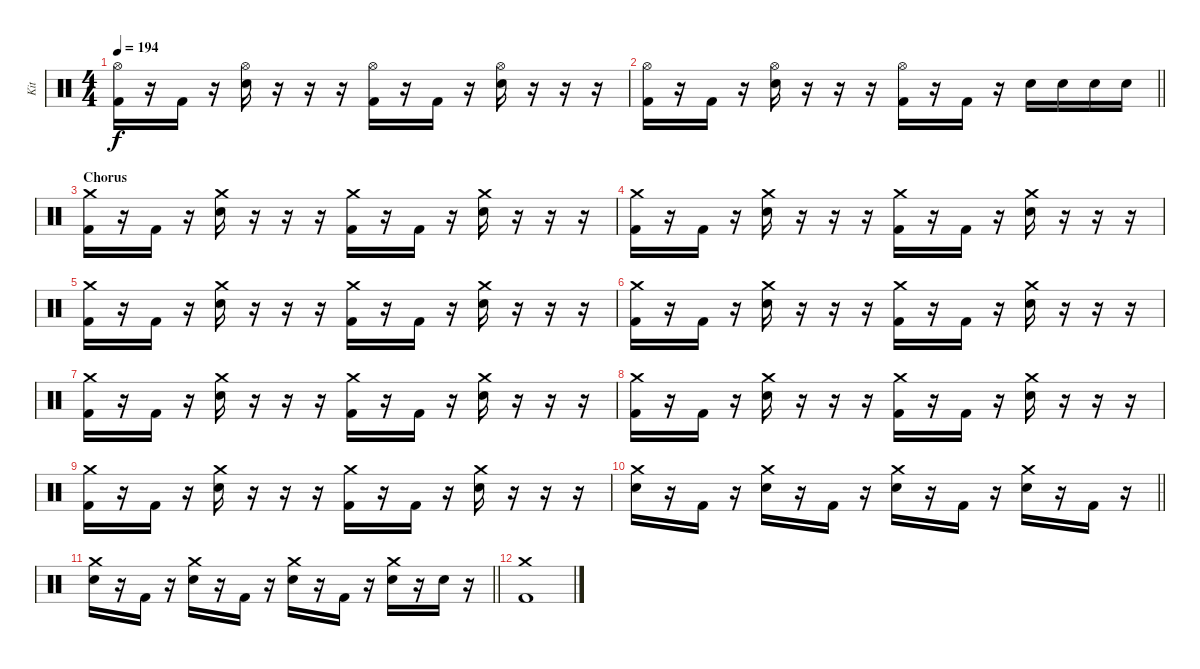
\track ("Kit" "Kit") {instrument percussion}
\staff {score}
\articulation defaults
\ts (4 4)
\tempo 194
\clef neutral
\ks c
("Hi-Hat (open)" "Kick (hit) 2").16{dy f} r.16 "Kick (hit) 2".16 r.16 ("Hi-Hat (open)" "Electric Snare (hit)").16 r.16 r.16 r.16 ("Hi-Hat (open)" "Kick (hit) 2").16 r.16 "Kick (hit) 2".16 r.16 ("Hi-Hat (open)" "Electric Snare (hit)").16 r.16 r.16 r.16 |
\barLineRight lightlight
("Hi-Hat (open)" "Kick (hit) 2").16 r.16 "Kick (hit) 2".16 r.16 ("Hi-Hat (open)" "Electric Snare (hit)").16 r.16 r.16 r.16 ("Hi-Hat (open)" "Kick (hit) 2").16 r.16 "Kick (hit) 2".16 r.16 "Electric Snare (hit)".16 "Electric Snare (hit)".16 "Electric Snare (hit)".16 "Electric Snare (hit)".16 |
\section ("" "Chorus")
("Crash medium (hit)" "Kick (hit) 2").16 r.16 "Kick (hit) 2".16 r.16 ("Crash medium (hit)" "Electric Snare (hit)").16 r.16 r.16 r.16 ("Crash medium (hit)" "Kick (hit) 2").16 r.16 "Kick (hit) 2".16 r.16 ("Crash medium (hit)" "Electric Snare (hit)").16 r.16 r.16 r.16 |
("Crash medium (hit)" "Kick (hit) 2").16 r.16 "Kick (hit) 2".16 r.16 ("Crash medium (hit)" "Electric Snare (hit)").16 r.16 r.16 r.16 ("Crash medium (hit)" "Kick (hit) 2").16 r.16 "Kick (hit) 2".16 r.16 ("Crash medium (hit)" "Electric Snare (hit)").16 r.16 r.16 r.16 |
("Crash medium (hit)" "Kick (hit) 2").16 r.16 "Kick (hit) 2".16 r.16 ("Crash medium (hit)" "Electric Snare (hit)").16 r.16 r.16 r.16 ("Crash medium (hit)" "Kick (hit) 2").16 r.16 "Kick (hit) 2".16 r.16 ("Crash medium (hit)" "Electric Snare (hit)").16 r.16 r.16 r.16 |
("Crash medium (hit)" "Kick (hit) 2").16 r.16 "Kick (hit) 2".16 r.16 ("Crash medium (hit)" "Electric Snare (hit)").16 r.16 r.16 r.16 ("Crash medium (hit)" "Kick (hit) 2").16 r.16 "Kick (hit) 2".16 r.16 ("Crash medium (hit)" "Electric Snare (hit)").16 r.16 r.16 r.16 |
("Crash medium (hit)" "Kick (hit) 2").16 r.16 "Kick (hit) 2".16 r.16 ("Crash medium (hit)" "Electric Snare (hit)").16 r.16 r.16 r.16 ("Crash medium (hit)" "Kick (hit) 2").16 r.16 "Kick (hit) 2".16 r.16 ("Crash medium (hit)" "Electric Snare (hit)").16 r.16 r.16 r.16 |
("Crash medium (hit)" "Kick (hit) 2").16 r.16 "Kick (hit) 2".16 r.16 ("Crash medium (hit)" "Electric Snare (hit)").16 r.16 r.16 r.16 ("Crash medium (hit)" "Kick (hit) 2").16 r.16 "Kick (hit) 2".16 r.16 ("Crash medium (hit)" "Electric Snare (hit)").16 r.16 r.16 r.16 |
("Crash medium (hit)" "Kick (hit) 2").16 r.16 "Kick (hit) 2".16 r.16 ("Crash medium (hit)" "Electric Snare (hit)").16 r.16 r.16 r.16 ("Crash medium (hit)" "Kick (hit) 2").16 r.16 "Kick (hit) 2".16 r.16 ("Crash medium (hit)" "Electric Snare (hit)").16 r.16 r.16 r.16 |
\barLineRight lightlight
("Crash medium (hit)" "Electric Snare (hit)").16 r.16 "Kick (hit) 2".16 r.16 ("Crash medium (hit)" "Electric Snare (hit)").16 r.16 "Kick (hit) 2".16 r.16 ("Crash medium (hit)" "Electric Snare (hit)").16 r.16 "Kick (hit) 2".16 r.16 ("Crash medium (hit)" "Electric Snare (hit)").16 r.16 "Kick (hit) 2".16 r.16 |
\barLineRight lightlight
("Crash medium (hit)" "Electric Snare (hit)").16 r.16 "Kick (hit) 2".16 r.16 ("Crash medium (hit)" "Electric Snare (hit)").16 r.16 "Kick (hit) 2".16 r.16 ("Crash medium (hit)" "Electric Snare (hit)").16 r.16 "Kick (hit) 2".16 r.16 ("Crash medium (hit)" "Electric Snare (hit)").16 r.16 "Electric Snare (hit)".16 r.16 |
("Crash medium (hit)" "Kick (hit) 2").1
